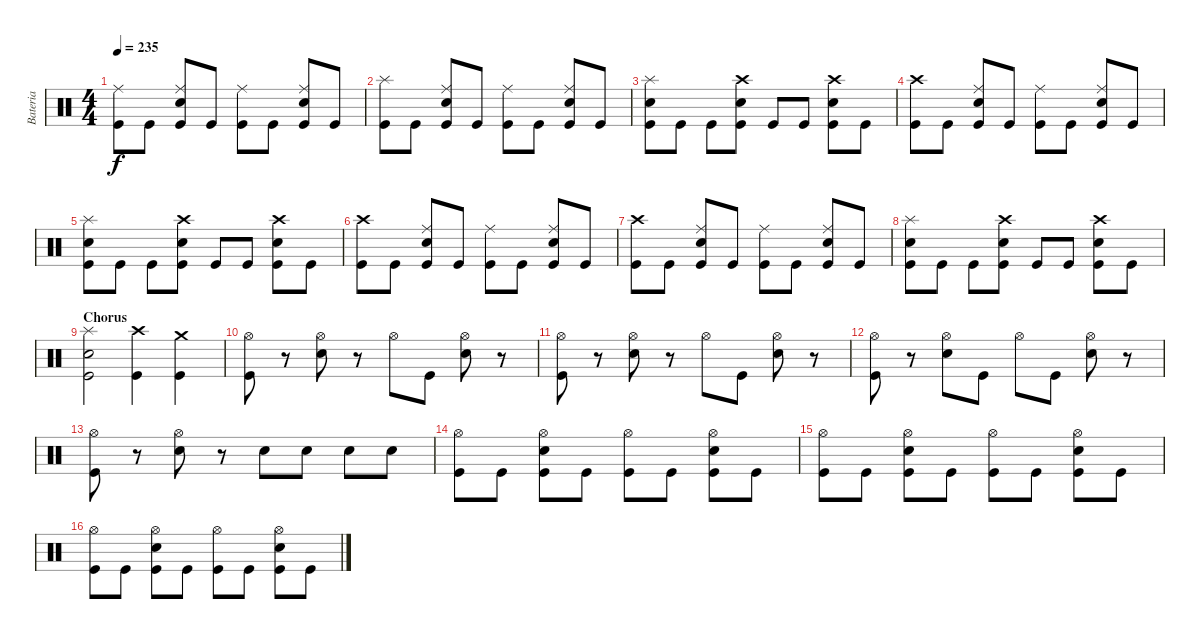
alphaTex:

\track ("Bateria" "Bateria") {instrument percussion}
\staff {score}
\articulation defaults
\ts (4 4)
\tempo 235
\clef neutral
\ks c
("Kick (hit)" "Ride (middle)").8{dy f} "Kick (hit)".8 ("Kick (hit)" "Electric Snare (hit)" "Ride (middle)").8 "Kick (hit)".8 ("Kick (hit)" "Ride (middle)").8 "Kick (hit)".8 ("Kick (hit)" "Electric Snare (hit)" "Ride (middle)").8 "Kick (hit)".8 |
("Kick (hit)" "Splash (hit)").8 "Kick (hit)".8 ("Kick (hit)" "Electric Snare (hit)" "Ride (middle)").8 "Kick (hit)".8 ("Kick (hit)" "Ride (middle)").8 "Kick (hit)".8 ("Kick (hit)" "Electric Snare (hit)" "Ride (middle)").8 "Kick (hit)".8 |
("Kick (hit)" "Electric Snare (hit)" "Splash (hit)").8 "Kick (hit)".8 "Kick (hit)".8 ("Kick (hit)" "Electric Snare (hit)" "Crash high (hit)").8 "Kick (hit)".8 "Kick (hit)".8 ("Kick (hit)" "Electric Snare (hit)" "Crash high (hit)").8 "Kick (hit)".8 |
("Kick (hit)" "Crash high (hit)").8 "Kick (hit)".8 ("Kick (hit)" "Electric Snare (hit)" "Ride (middle)").8 "Kick (hit)".8 ("Kick (hit)" "Ride (middle)").8 "Kick (hit)".8 ("Kick (hit)" "Electric Snare (hit)" "Ride (middle)").8 "Kick (hit)".8 |
("Kick (hit)" "Electric Snare (hit)" "Splash (hit)").8 "Kick (hit)".8 "Kick (hit)".8 ("Kick (hit)" "Electric Snare (hit)" "Crash high (hit)").8 "Kick (hit)".8 "Kick (hit)".8 ("Kick (hit)" "Electric Snare (hit)" "Crash high (hit)").8 "Kick (hit)".8 |
("Kick (hit)" "Crash high (hit)").8 "Kick (hit)".8 ("Kick (hit)" "Electric Snare (hit)" "Ride (middle)").8 "Kick (hit)".8 ("Kick (hit)" "Ride (middle)").8 "Kick (hit)".8 ("Kick (hit)" "Electric Snare (hit)" "Ride (middle)").8 "Kick (hit)".8 |
("Kick (hit)" "Crash high (hit)").8 "Kick (hit)".8 ("Kick (hit)" "Electric Snare (hit)" "Ride (middle)").8 "Kick (hit)".8 ("Kick (hit)" "Ride (middle)").8 "Kick (hit)".8 ("Kick (hit)" "Electric Snare (hit)" "Ride (middle)").8 "Kick (hit)".8 |
("Kick (hit)" "Electric Snare (hit)" "Splash (hit)").8 "Kick (hit)".8 "Kick (hit)".8 ("Kick (hit)" "Electric Snare (hit)" "Crash high (hit)").8 "Kick (hit)".8 "Kick (hit)".8 ("Kick (hit)" "Electric Snare (hit)" "Crash high (hit)").8 "Kick (hit)".8 |
\section ("" "Chorus")
("Kick (hit)" "Electric Snare (hit)" "Splash (hit)").2 ("Kick (hit)" "Crash high (hit)").4 ("Kick (hit)" "Crash medium (hit)").4 |
("Kick (hit)" "Hi-Hat (open)").8 r.8 ("Electric Snare (hit)" "Hi-Hat (open)").8 r.8 "Hi-Hat (open)".8 "Kick (hit)".8 ("Electric Snare (hit)" "Hi-Hat (open)").8 r.8 |
("Kick (hit)" "Hi-Hat (open)").8 r.8 ("Electric Snare (hit)" "Hi-Hat (open)").8 r.8 "Hi-Hat (open)".8 "Kick (hit)".8 ("Electric Snare (hit)" "Hi-Hat (open)").8 r.8 |
("Kick (hit)" "Hi-Hat (open)").8 r.8 ("Electric Snare (hit)" "Hi-Hat (open)").8 "Kick (hit)".8 "Hi-Hat (open)".8 "Kick (hit)".8 ("Electric Snare (hit)" "Hi-Hat (open)").8 r.8 |
("Kick (hit)" "Hi-Hat (open)").8 r.8 ("Electric Snare (hit)" "Hi-Hat (open)").8 r.8 "Electric Snare (hit)".8 "Electric Snare (hit)".8 "Electric Snare (hit)".8 "Electric Snare (hit)".8 |
("Kick (hit)" "Hi-Hat (open)").8 "Kick (hit)".8 ("Kick (hit)" "Electric Snare (hit)" "Hi-Hat (open)").8 "Kick (hit)".8 ("Kick (hit)" "Hi-Hat (open)").8 "Kick (hit)".8 ("Kick (hit)" "Electric Snare (hit)" "Hi-Hat (open)").8 "Kick (hit)".8 |
("Kick (hit)" "Hi-Hat (open)").8 "Kick (hit)".8 ("Kick (hit)" "Electric Snare (hit)" "Hi-Hat (open)").8 "Kick (hit)".8 ("Kick (hit)" "Hi-Hat (open)").8 "Kick (hit)".8 ("Kick (hit)" "Electric Snare (hit)" "Hi-Hat (open)").8 "Kick (hit)".8 |
("Kick (hit)" "Hi-Hat (open)").8 "Kick (hit)".8 ("Kick (hit)" "Electric Snare (hit)" "Hi-Hat (open)").8 "Kick (hit)".8 ("Kick (hit)" "Hi-Hat (open)").8 "Kick (hit)".8 ("Kick (hit)" "Electric Snare (hit)" "Hi-Hat (open)").8 "Kick (hit)".8
